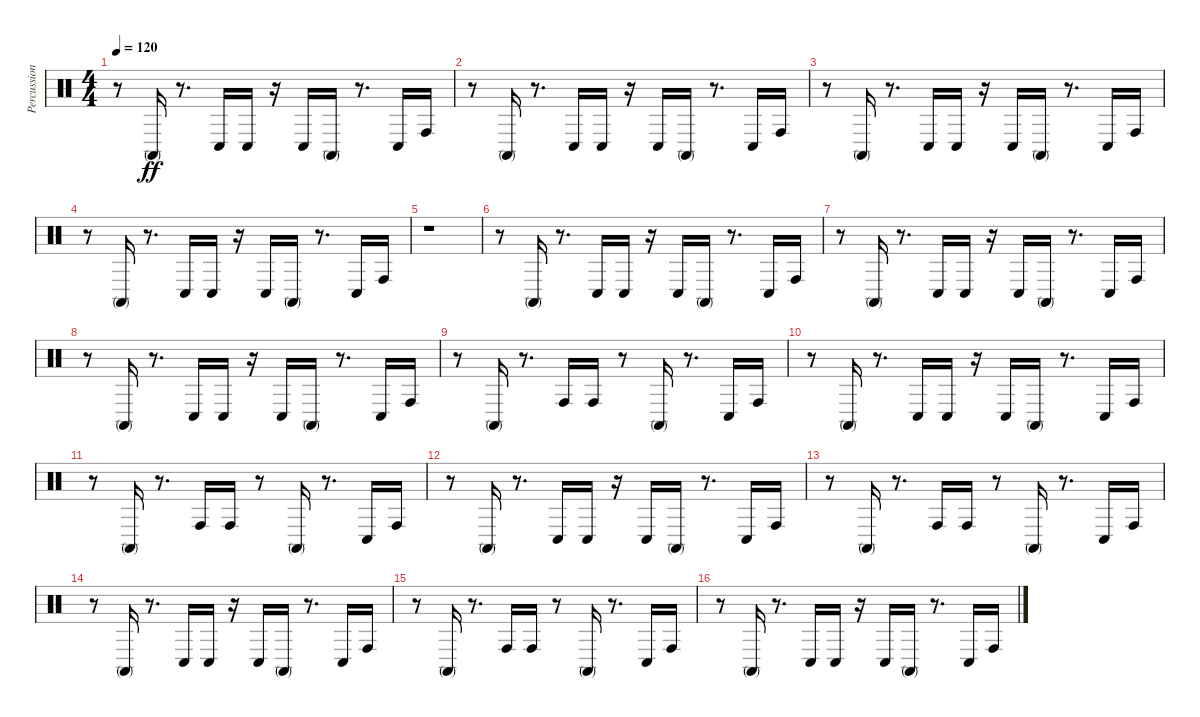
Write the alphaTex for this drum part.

\track ("Percussion" "Percussion") {instrument percussion}
\staff {score}
\articulation defaults
\ts (4 4)
\tempo 120
\clef neutral
\ks c
r.8{dy ff} "Conga high (mute)".16 r.8{d} "Conga low (hit)".16 "Conga low (hit)".16 r.16 "Conga low (hit)".16 "Conga high (mute)".16 r.8{d} "Conga low (hit)".16 "Conga high (hit)".16 |
r.8 "Conga high (mute)".16 r.8{d} "Conga low (hit)".16 "Conga low (hit)".16 r.16 "Conga low (hit)".16 "Conga high (mute)".16 r.8{d} "Conga low (hit)".16 "Conga high (hit)".16 |
r.8 "Conga high (mute)".16 r.8{d} "Conga low (hit)".16 "Conga low (hit)".16 r.16 "Conga low (hit)".16 "Conga high (mute)".16 r.8{d} "Conga low (hit)".16 "Conga high (hit)".16 |
r.8 "Conga high (mute)".16 r.8{d} "Conga low (hit)".16 "Conga low (hit)".16 r.16 "Conga low (hit)".16 "Conga high (mute)".16 r.8{d} "Conga low (hit)".16 "Conga high (hit)".16 |
r.1 |
r.8 "Conga high (mute)".16 r.8{d} "Conga low (hit)".16 "Conga low (hit)".16 r.16 "Conga low (hit)".16 "Conga high (mute)".16 r.8{d} "Conga low (hit)".16 "Conga high (hit)".16 |
r.8 "Conga high (mute)".16 r.8{d} "Conga low (hit)".16 "Conga low (hit)".16 r.16 "Conga low (hit)".16 "Conga high (mute)".16 r.8{d} "Conga low (hit)".16 "Conga high (hit)".16 |
r.8 "Conga high (mute)".16 r.8{d} "Conga low (hit)".16 "Conga low (hit)".16 r.16 "Conga low (hit)".16 "Conga high (mute)".16 r.8{d} "Conga low (hit)".16 "Conga high (hit)".16 |
r.8 "Conga high (mute)".16 r.8{d} "Conga high (hit)".16 "Conga high (hit)".16 r.8 "Conga high (mute)".16 r.8{d} "Conga low (hit)".16 "Conga high (hit)".16 |
r.8 "Conga high (mute)".16 r.8{d} "Conga low (hit)".16 "Conga low (hit)".16 r.16 "Conga low (hit)".16 "Conga high (mute)".16 r.8{d} "Conga low (hit)".16 "Conga high (hit)".16 |
r.8 "Conga high (mute)".16 r.8{d} "Conga high (hit)".16 "Conga high (hit)".16 r.8 "Conga high (mute)".16 r.8{d} "Conga low (hit)".16 "Conga high (hit)".16 |
r.8 "Conga high (mute)".16 r.8{d} "Conga low (hit)".16 "Conga low (hit)".16 r.16 "Conga low (hit)".16 "Conga high (mute)".16 r.8{d} "Conga low (hit)".16 "Conga high (hit)".16 |
r.8 "Conga high (mute)".16 r.8{d} "Conga high (hit)".16 "Conga high (hit)".16 r.8 "Conga high (mute)".16 r.8{d} "Conga low (hit)".16 "Conga high (hit)".16 |
r.8 "Conga high (mute)".16 r.8{d} "Conga low (hit)".16 "Conga low (hit)".16 r.16 "Conga low (hit)".16 "Conga high (mute)".16 r.8{d} "Conga low (hit)".16 "Conga high (hit)".16 |
r.8 "Conga high (mute)".16 r.8{d} "Conga high (hit)".16 "Conga high (hit)".16 r.8 "Conga high (mute)".16 r.8{d} "Conga low (hit)".16 "Conga high (hit)".16 |
r.8 "Conga high (mute)".16 r.8{d} "Conga low (hit)".16 "Conga low (hit)".16 r.16 "Conga low (hit)".16 "Conga high (mute)".16 r.8{d} "Conga low (hit)".16 "Conga high (hit)".16
